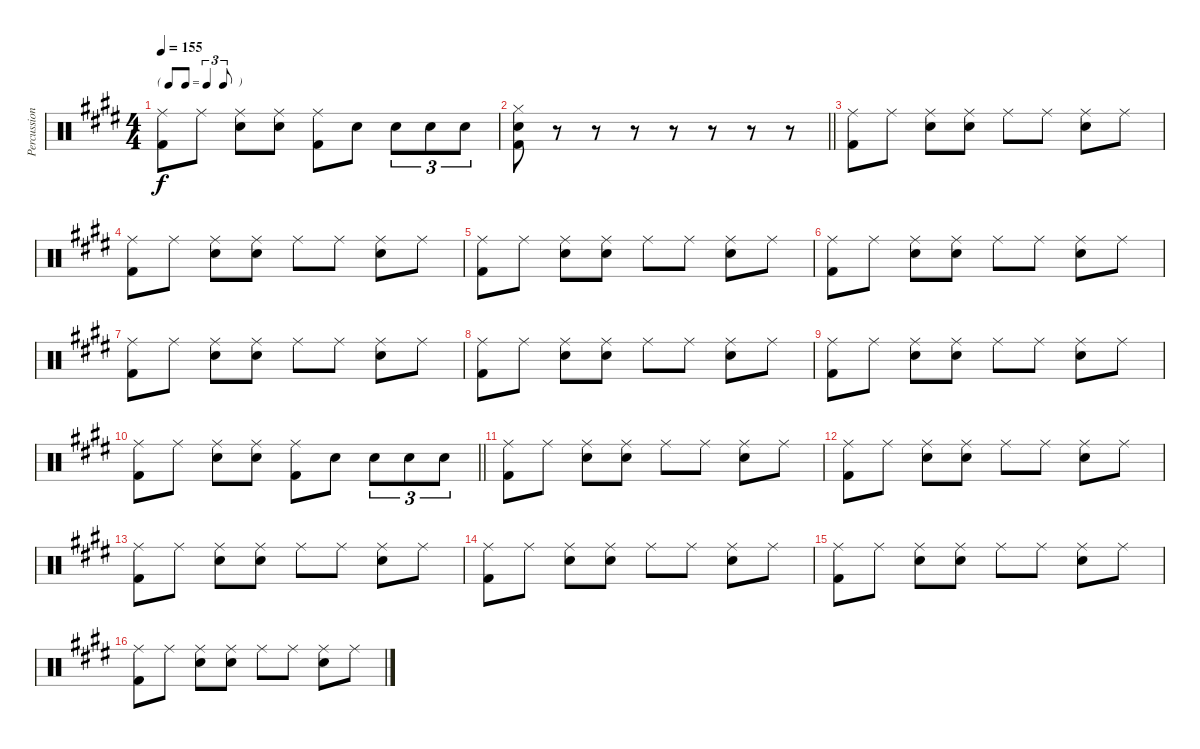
\track ("Percussion" "Percussion") {instrument percussion}
\staff {score}
\articulation defaults
\ts (4 4)
\tf triplet8th
\tempo 155
\clef neutral
\ks e
("Ride (middle)" "Kick (hit) 2").8{dy f} "Ride (middle)".8 ("Ride (middle)" "Snare (hit) 2").8 ("Ride (middle)" "Snare (hit) 2").8 ("Ride (middle)" "Kick (hit) 2").8 "Snare (hit) 2".8 "Snare (hit) 2".8{tu (3 2)} "Snare (hit) 2".8{tu (3 2)} "Snare (hit) 2".8{tu (3 2)} |
\barLineRight lightlight
("Hi-Hat (closed)" "Snare (hit) 2" "Kick (hit) 2").8 r.8 r.8 r.8 r.8 r.8 r.8 r.8 |
("Ride (middle)" "Kick (hit) 2").8 "Ride (middle)".8 ("Ride (middle)" "Snare (hit) 2").8 ("Ride (middle)" "Snare (hit) 2").8 "Ride (middle)".8 "Ride (middle)".8 ("Ride (middle)" "Snare (hit) 2").8 "Ride (middle)".8 |
("Ride (middle)" "Kick (hit) 2").8 "Ride (middle)".8 ("Ride (middle)" "Snare (hit) 2").8 ("Ride (middle)" "Snare (hit) 2").8 "Ride (middle)".8 "Ride (middle)".8 ("Ride (middle)" "Snare (hit) 2").8 "Ride (middle)".8 |
("Ride (middle)" "Kick (hit) 2").8 "Ride (middle)".8 ("Ride (middle)" "Snare (hit) 2").8 ("Ride (middle)" "Snare (hit) 2").8 "Ride (middle)".8 "Ride (middle)".8 ("Ride (middle)" "Snare (hit) 2").8 "Ride (middle)".8 |
("Ride (middle)" "Kick (hit) 2").8 "Ride (middle)".8 ("Ride (middle)" "Snare (hit) 2").8 ("Ride (middle)" "Snare (hit) 2").8 "Ride (middle)".8 "Ride (middle)".8 ("Ride (middle)" "Snare (hit) 2").8 "Ride (middle)".8 |
("Ride (middle)" "Kick (hit) 2").8 "Ride (middle)".8 ("Ride (middle)" "Snare (hit) 2").8 ("Ride (middle)" "Snare (hit) 2").8 "Ride (middle)".8 "Ride (middle)".8 ("Ride (middle)" "Snare (hit) 2").8 "Ride (middle)".8 |
("Ride (middle)" "Kick (hit) 2").8 "Ride (middle)".8 ("Ride (middle)" "Snare (hit) 2").8 ("Ride (middle)" "Snare (hit) 2").8 "Ride (middle)".8 "Ride (middle)".8 ("Ride (middle)" "Snare (hit) 2").8 "Ride (middle)".8 |
("Ride (middle)" "Kick (hit) 2").8 "Ride (middle)".8 ("Ride (middle)" "Snare (hit) 2").8 ("Ride (middle)" "Snare (hit) 2").8 "Ride (middle)".8 "Ride (middle)".8 ("Ride (middle)" "Snare (hit) 2").8 "Ride (middle)".8 |
\barLineRight lightlight
("Ride (middle)" "Kick (hit) 2").8 "Ride (middle)".8 ("Ride (middle)" "Snare (hit) 2").8 ("Ride (middle)" "Snare (hit) 2").8 ("Ride (middle)" "Kick (hit) 2").8 "Snare (hit) 2".8 "Snare (hit) 2".8{tu (3 2)} "Snare (hit) 2".8{tu (3 2)} "Snare (hit) 2".8{tu (3 2)} |
("Ride (middle)" "Kick (hit) 2").8 "Ride (middle)".8 ("Ride (middle)" "Snare (hit) 2").8 ("Ride (middle)" "Snare (hit) 2").8 "Ride (middle)".8 "Ride (middle)".8 ("Ride (middle)" "Snare (hit) 2").8 "Ride (middle)".8 |
("Ride (middle)" "Kick (hit) 2").8 "Ride (middle)".8 ("Ride (middle)" "Snare (hit) 2").8 ("Ride (middle)" "Snare (hit) 2").8 "Ride (middle)".8 "Ride (middle)".8 ("Ride (middle)" "Snare (hit) 2").8 "Ride (middle)".8 |
("Ride (middle)" "Kick (hit) 2").8 "Ride (middle)".8 ("Ride (middle)" "Snare (hit) 2").8 ("Ride (middle)" "Snare (hit) 2").8 "Ride (middle)".8 "Ride (middle)".8 ("Ride (middle)" "Snare (hit) 2").8 "Ride (middle)".8 |
("Ride (middle)" "Kick (hit) 2").8 "Ride (middle)".8 ("Ride (middle)" "Snare (hit) 2").8 ("Ride (middle)" "Snare (hit) 2").8 "Ride (middle)".8 "Ride (middle)".8 ("Ride (middle)" "Snare (hit) 2").8 "Ride (middle)".8 |
("Ride (middle)" "Kick (hit) 2").8 "Ride (middle)".8 ("Ride (middle)" "Snare (hit) 2").8 ("Ride (middle)" "Snare (hit) 2").8 "Ride (middle)".8 "Ride (middle)".8 ("Ride (middle)" "Snare (hit) 2").8 "Ride (middle)".8 |
("Ride (middle)" "Kick (hit) 2").8 "Ride (middle)".8 ("Ride (middle)" "Snare (hit) 2").8 ("Ride (middle)" "Snare (hit) 2").8 "Ride (middle)".8 "Ride (middle)".8 ("Ride (middle)" "Snare (hit) 2").8 "Ride (middle)".8
